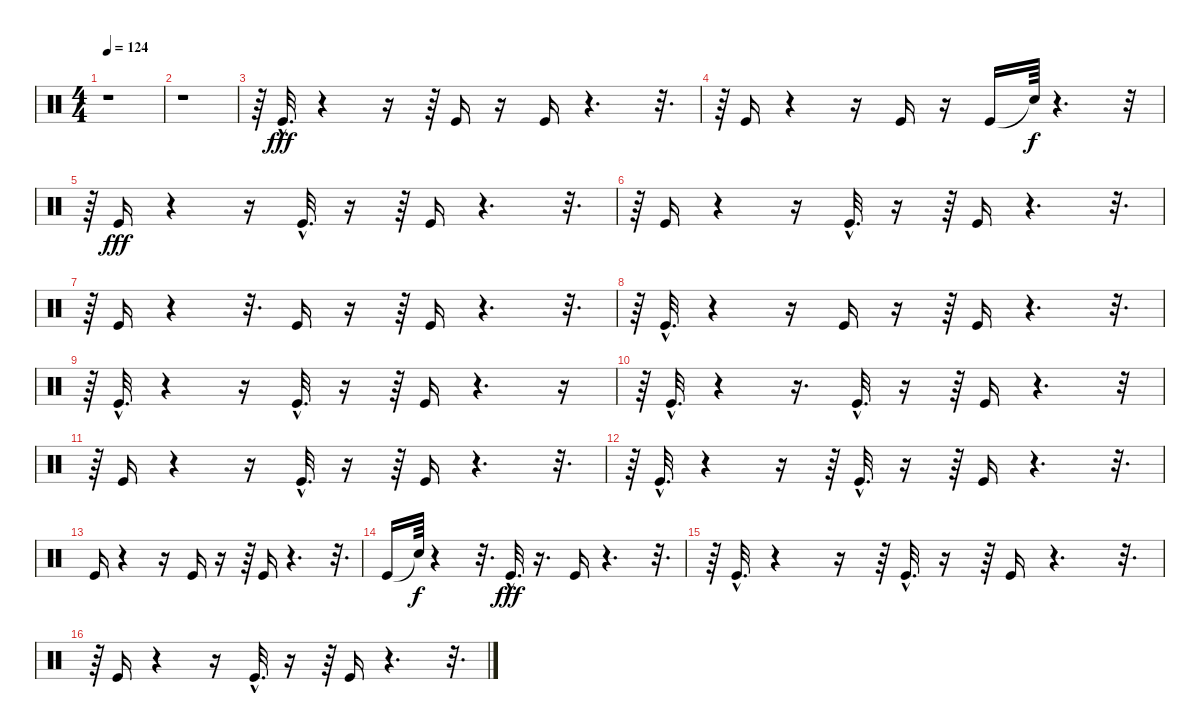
\track "" {instrument percussion}
\staff {score}
\articulation defaults
\ts (4 4)
\tempo 124
\clef neutral
\ks c
r.1{dy fff} |
r.1 |
r.64 "Kick (hit)"{hac}.32{d} r.4 r.16 r.64 "Kick (hit)".16 r.16 "Kick (hit)".16 r.4{d} r.32{d} |
r.64 "Kick (hit)".16 r.4 r.16 "Kick (hit)".16 r.16 "Kick (hit)".16 "Snare (hit)"{t}.64{dy f} r.4{d} r.32 |
r.64 "Kick (hit)".16{dy fff} r.4 r.16 "Kick (hit)"{hac}.32{d} r.16 r.64 "Kick (hit)".16 r.4{d} r.32{d} |
r.64 "Kick (hit)".16 r.4 r.16 "Kick (hit)"{hac}.32{d} r.16 r.64 "Kick (hit)".16 r.4{d} r.32{d} |
r.64 "Kick (hit)".16 r.4 r.32{d} "Kick (hit)".16 r.16 r.64 "Kick (hit)".16 r.4{d} r.32{d} |
r.64 "Kick (hit)"{hac}.32{d} r.4 r.16 "Kick (hit)".16 r.16 r.64 "Kick (hit)".16 r.4{d} r.32{d} |
r.64 "Kick (hit)"{hac}.32{d} r.4 r.16 "Kick (hit)"{hac}.32{d} r.16 r.64 "Kick (hit)".16 r.4{d} r.16 |
r.64 "Kick (hit)"{hac}.32{d} r.4 r.16{d} "Kick (hit)"{hac}.32{d} r.16 r.64 "Kick (hit)".16 r.4{d} r.32 |
r.64 "Kick (hit)".16 r.4 r.16 "Kick (hit)"{hac}.32{d} r.16 r.64 "Kick (hit)".16 r.4{d} r.32{d} |
r.64 "Kick (hit)"{hac}.32{d} r.4 r.16 r.64 "Kick (hit)"{hac}.32{d} r.16 r.64 "Kick (hit)".16 r.4{d} r.32{d} |
"Kick (hit)".16 r.4 r.16 "Kick (hit)".16 r.16 r.64 "Kick (hit)".16 r.4{d} r.32{d} |
"Kick (hit)".16 "Snare (hit)"{t}.64{dy f} r.4 r.32{d} "Kick (hit)"{hac}.32{d dy fff} r.16{d} "Kick (hit)".16 r.4{d} r.32{d} |
r.64 "Kick (hit)"{hac}.32{d} r.4 r.16 r.64 "Kick (hit)"{hac}.32{d} r.16 r.64 "Kick (hit)".16 r.4{d} r.32{d} |
r.64 "Kick (hit)".16 r.4 r.16 "Kick (hit)"{hac}.32{d} r.16 r.64 "Kick (hit)".16 r.4{d} r.32{d}
